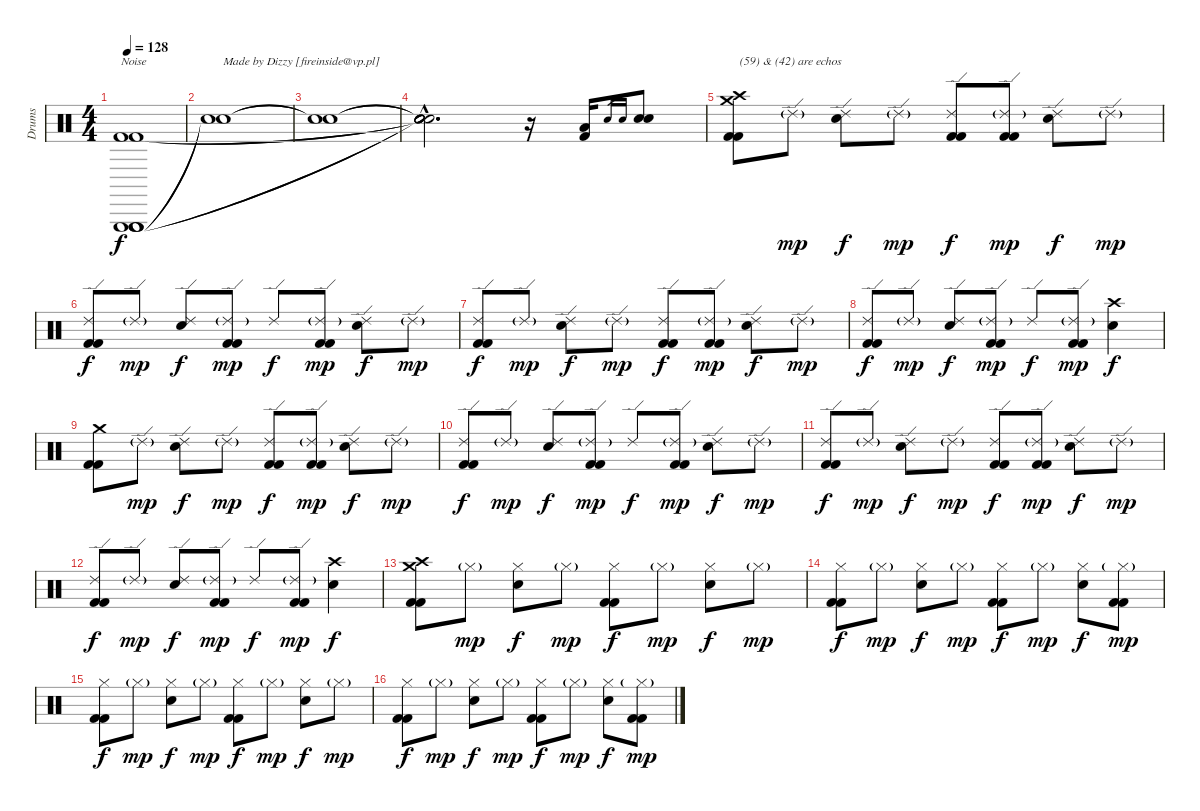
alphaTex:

\track ("Drums" "Drums") {instrument percussion}
\staff {score}
\articulation defaults
\ts (4 4)
\tempo 128
\clef neutral
\ks c
("Triangle (hit)" "Triangle (hit)" "Triangle (hit)" "Triangle (hit)" "Kick (hit) 2" "Kick (hit) 2").1{txt "Noise" dy f volume 16} |
("Snare (hit)"{t} "Snare (hit)"{t}).1{txt "Made by Dizzy [fireinside@vp.pl]"} |
("Snare (hit)"{t} "Snare (hit)"{t}).1 |
("Snare (hit)"{hac t} "Snare (hit)"{hac t} "Snare (hit)"{hac t} "Snare (hit)"{hac t} "Snare (hit)"{hac t} "Snare (hit)"{hac t}).2{d} r.16{volume 13} ("Low Floor Tom (hit)" "Kick (hit) 2").16 "Electric Snare (hit)".16{gr} "Electric Snare (hit)".16{gr} ("Electric Snare (hit)" "Electric Snare (hit)").8 |
("Crash medium (hit)" "Crash high (hit)" "Kick (hit) 2" "Kick (hit) 2").8{txt "(59) & (42) are echos" volume 16} "Ride (edge) 2"{g}.8{dy mp} ("Ride (edge) 2" "Electric Snare (hit)").8{dy f} "Ride (edge) 2"{g}.8{dy mp} ("Ride (edge) 2" "Kick (hit) 2" "Kick (hit) 2").8{dy f} ("Ride (edge) 2"{g} "Kick (hit) 2" "Kick (hit) 2").8{dy mp} ("Ride (edge) 2" "Electric Snare (hit)").8{dy f} "Ride (edge) 2"{g}.8{dy mp} |
("Ride (edge) 2" "Kick (hit) 2" "Kick (hit) 2").8{dy f} "Ride (edge) 2"{g}.8{dy mp} ("Ride (edge) 2" "Electric Snare (hit)").8{dy f} ("Ride (edge) 2"{g} "Kick (hit) 2" "Kick (hit) 2").8{dy mp} "Ride (edge) 2".8{dy f} ("Ride (edge) 2"{g} "Kick (hit) 2" "Kick (hit) 2").8{dy mp} ("Ride (edge) 2" "Electric Snare (hit)").8{dy f} "Ride (edge) 2"{g}.8{dy mp} |
("Ride (edge) 2" "Kick (hit) 2" "Kick (hit) 2").8{dy f} "Ride (edge) 2"{g}.8{dy mp} ("Ride (edge) 2" "Electric Snare (hit)").8{dy f} "Ride (edge) 2"{g}.8{dy mp} ("Ride (edge) 2" "Kick (hit) 2" "Kick (hit) 2").8{dy f} ("Ride (edge) 2"{g} "Kick (hit) 2" "Kick (hit) 2").8{dy mp} ("Ride (edge) 2" "Electric Snare (hit)").8{dy f} "Ride (edge) 2"{g}.8{dy mp} |
("Ride (edge) 2" "Kick (hit) 2" "Kick (hit) 2").8{dy f} "Ride (edge) 2"{g}.8{dy mp} ("Ride (edge) 2" "Electric Snare (hit)").8{dy f} ("Ride (edge) 2"{g} "Kick (hit) 2" "Kick (hit) 2").8{dy mp} "Ride (edge) 2".8{dy f} ("Ride (edge) 2"{g} "Kick (hit) 2" "Kick (hit) 2").8{dy mp} ("Crash high (hit)" "Electric Snare (hit)").4{dy f} |
("Crash medium (hit)" "Kick (hit) 2" "Kick (hit) 2").8 "Ride (edge) 2"{g}.8{dy mp} ("Ride (edge) 2" "Electric Snare (hit)").8{dy f} "Ride (edge) 2"{g}.8{dy mp} ("Ride (edge) 2" "Kick (hit) 2" "Kick (hit) 2").8{dy f} ("Ride (edge) 2"{g} "Kick (hit) 2" "Kick (hit) 2").8{dy mp} ("Ride (edge) 2" "Electric Snare (hit)").8{dy f} "Ride (edge) 2"{g}.8{dy mp} |
("Ride (edge) 2" "Kick (hit) 2" "Kick (hit) 2").8{dy f} "Ride (edge) 2"{g}.8{dy mp} ("Ride (edge) 2" "Electric Snare (hit)").8{dy f} ("Ride (edge) 2"{g} "Kick (hit) 2" "Kick (hit) 2").8{dy mp} "Ride (edge) 2".8{dy f} ("Ride (edge) 2"{g} "Kick (hit) 2" "Kick (hit) 2").8{dy mp} ("Ride (edge) 2" "Electric Snare (hit)").8{dy f} "Ride (edge) 2"{g}.8{dy mp} |
("Ride (edge) 2" "Kick (hit) 2" "Kick (hit) 2").8{dy f} "Ride (edge) 2"{g}.8{dy mp} ("Ride (edge) 2" "Electric Snare (hit)").8{dy f} "Ride (edge) 2"{g}.8{dy mp} ("Ride (edge) 2" "Kick (hit) 2" "Kick (hit) 2").8{dy f} ("Ride (edge) 2"{g} "Kick (hit) 2" "Kick (hit) 2").8{dy mp} ("Ride (edge) 2" "Electric Snare (hit)").8{dy f} "Ride (edge) 2"{g}.8{dy mp} |
("Ride (edge) 2" "Kick (hit) 2" "Kick (hit) 2").8{dy f} "Ride (edge) 2"{g}.8{dy mp} ("Ride (edge) 2" "Electric Snare (hit)").8{dy f} ("Ride (edge) 2"{g} "Kick (hit) 2" "Kick (hit) 2").8{dy mp} "Ride (edge) 2".8{dy f} ("Ride (edge) 2"{g} "Kick (hit) 2" "Kick (hit) 2").8{dy mp} ("Crash high (hit)" "Electric Snare (hit)").4{dy f} |
("Crash medium (hit)" "Crash high (hit)" "Kick (hit) 2" "Kick (hit) 2").8{volume 16} "Hi-Hat (closed)"{g}.8{dy mp} ("Hi-Hat (closed)" "Electric Snare (hit)").8{dy f} "Hi-Hat (closed)"{g}.8{dy mp} ("Hi-Hat (closed)" "Kick (hit) 2" "Kick (hit) 2").8{dy f} "Hi-Hat (closed)"{g}.8{dy mp} ("Hi-Hat (closed)" "Electric Snare (hit)").8{dy f} "Hi-Hat (closed)"{g}.8{dy mp} |
("Hi-Hat (closed)" "Kick (hit) 2" "Kick (hit) 2").8{dy f} "Hi-Hat (closed)"{g}.8{dy mp} ("Hi-Hat (closed)" "Electric Snare (hit)").8{dy f} "Hi-Hat (closed)"{g}.8{dy mp} ("Hi-Hat (closed)" "Kick (hit) 2" "Kick (hit) 2").8{dy f} "Hi-Hat (closed)"{g}.8{dy mp} ("Hi-Hat (closed)" "Electric Snare (hit)").8{dy f} ("Hi-Hat (closed)"{g} "Kick (hit) 2" "Kick (hit) 2").8{dy mp} |
("Hi-Hat (closed)" "Kick (hit) 2" "Kick (hit) 2").8{dy f} "Hi-Hat (closed)"{g}.8{dy mp} ("Hi-Hat (closed)" "Electric Snare (hit)").8{dy f} "Hi-Hat (closed)"{g}.8{dy mp} ("Hi-Hat (closed)" "Kick (hit) 2" "Kick (hit) 2").8{dy f} "Hi-Hat (closed)"{g}.8{dy mp} ("Hi-Hat (closed)" "Electric Snare (hit)").8{dy f} "Hi-Hat (closed)"{g}.8{dy mp} |
("Hi-Hat (closed)" "Kick (hit) 2" "Kick (hit) 2").8{dy f} "Hi-Hat (closed)"{g}.8{dy mp} ("Hi-Hat (closed)" "Electric Snare (hit)").8{dy f} "Hi-Hat (closed)"{g}.8{dy mp} ("Hi-Hat (closed)" "Kick (hit) 2" "Kick (hit) 2").8{dy f} "Hi-Hat (closed)"{g}.8{dy mp} ("Hi-Hat (closed)" "Electric Snare (hit)").8{dy f} ("Hi-Hat (closed)"{g} "Kick (hit) 2" "Kick (hit) 2").8{dy mp}
